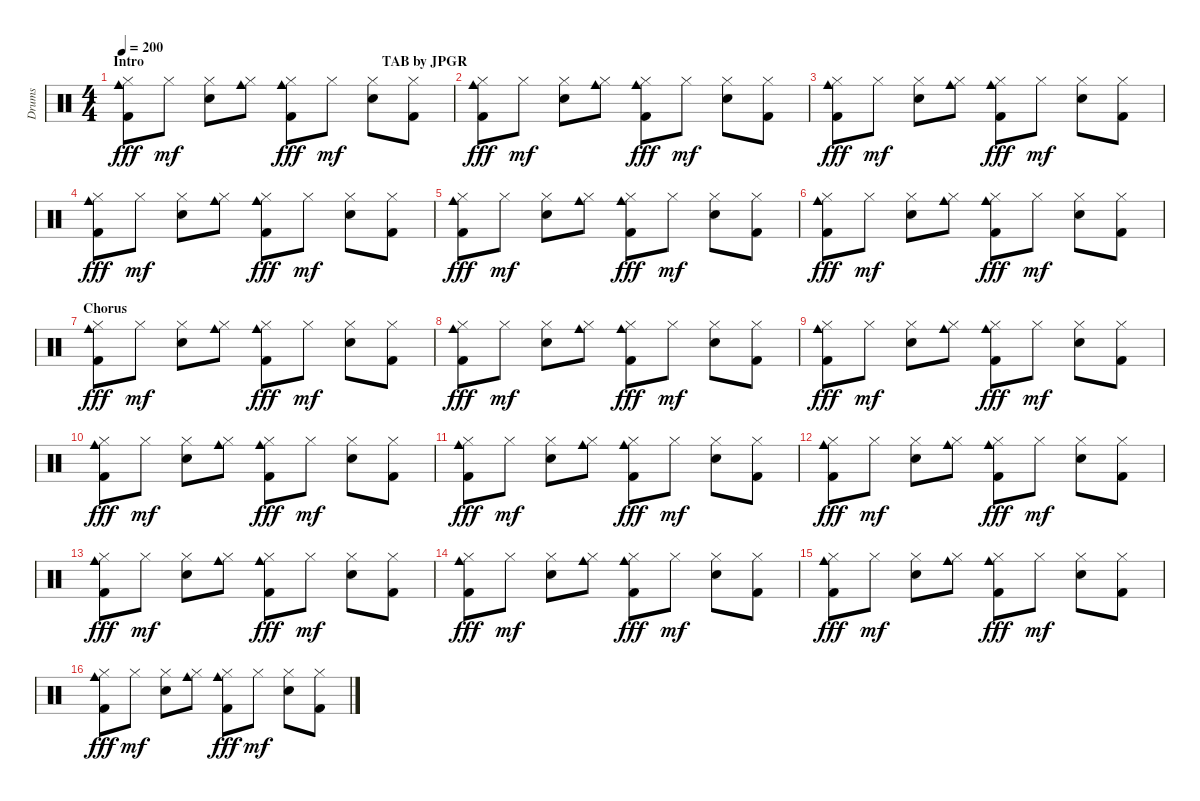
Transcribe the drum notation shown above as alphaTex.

\track ("Drums" "Drums") {instrument percussion}
\staff {score}
\articulation defaults
\ts (4 4)
\section ("" "Intro                                                                    TAB by JPGR")
\tempo 200
\clef neutral
\ks c
("Cowbell medium (hit)" "Hi-Hat (closed)" "Kick (hit) 2").8{dy fff} "Hi-Hat (closed)".8{dy mf} ("Hi-Hat (closed)" "Electric Snare (hit)").8 ("Cowbell medium (hit)" "Hi-Hat (closed)").8 ("Cowbell medium (hit)" "Hi-Hat (closed)" "Kick (hit) 2").8{dy fff} "Hi-Hat (closed)".8{dy mf} ("Hi-Hat (closed)" "Electric Snare (hit)").8 ("Hi-Hat (closed)" "Kick (hit) 2").8 |
("Cowbell medium (hit)" "Hi-Hat (closed)" "Kick (hit) 2").8{dy fff} "Hi-Hat (closed)".8{dy mf} ("Hi-Hat (closed)" "Electric Snare (hit)").8 ("Cowbell medium (hit)" "Hi-Hat (closed)").8 ("Cowbell medium (hit)" "Hi-Hat (closed)" "Kick (hit) 2").8{dy fff} "Hi-Hat (closed)".8{dy mf} ("Hi-Hat (closed)" "Electric Snare (hit)").8 ("Hi-Hat (closed)" "Kick (hit) 2").8 |
("Cowbell medium (hit)" "Hi-Hat (closed)" "Kick (hit) 2").8{dy fff} "Hi-Hat (closed)".8{dy mf} ("Hi-Hat (closed)" "Electric Snare (hit)").8 ("Cowbell medium (hit)" "Hi-Hat (closed)").8 ("Cowbell medium (hit)" "Hi-Hat (closed)" "Kick (hit) 2").8{dy fff} "Hi-Hat (closed)".8{dy mf} ("Hi-Hat (closed)" "Electric Snare (hit)").8 ("Hi-Hat (closed)" "Kick (hit) 2").8 |
("Cowbell medium (hit)" "Hi-Hat (closed)" "Kick (hit) 2").8{dy fff} "Hi-Hat (closed)".8{dy mf} ("Hi-Hat (closed)" "Electric Snare (hit)").8 ("Cowbell medium (hit)" "Hi-Hat (closed)").8 ("Cowbell medium (hit)" "Hi-Hat (closed)" "Kick (hit) 2").8{dy fff} "Hi-Hat (closed)".8{dy mf} ("Hi-Hat (closed)" "Electric Snare (hit)").8 ("Hi-Hat (closed)" "Kick (hit) 2").8 |
("Cowbell medium (hit)" "Hi-Hat (closed)" "Kick (hit) 2").8{dy fff} "Hi-Hat (closed)".8{dy mf} ("Hi-Hat (closed)" "Electric Snare (hit)").8 ("Cowbell medium (hit)" "Hi-Hat (closed)").8 ("Cowbell medium (hit)" "Hi-Hat (closed)" "Kick (hit) 2").8{dy fff} "Hi-Hat (closed)".8{dy mf} ("Hi-Hat (closed)" "Electric Snare (hit)").8 ("Hi-Hat (closed)" "Kick (hit) 2").8 |
("Cowbell medium (hit)" "Hi-Hat (closed)" "Kick (hit) 2").8{dy fff} "Hi-Hat (closed)".8{dy mf} ("Hi-Hat (closed)" "Electric Snare (hit)").8 ("Cowbell medium (hit)" "Hi-Hat (closed)").8 ("Cowbell medium (hit)" "Hi-Hat (closed)" "Kick (hit) 2").8{dy fff} "Hi-Hat (closed)".8{dy mf} ("Hi-Hat (closed)" "Electric Snare (hit)").8 ("Hi-Hat (closed)" "Kick (hit) 2").8 |
\section ("" "Chorus")
("Cowbell medium (hit)" "Hi-Hat (closed)" "Kick (hit) 2").8{dy fff} "Hi-Hat (closed)".8{dy mf} ("Hi-Hat (closed)" "Electric Snare (hit)").8 ("Cowbell medium (hit)" "Hi-Hat (closed)").8 ("Cowbell medium (hit)" "Hi-Hat (closed)" "Kick (hit) 2").8{dy fff} "Hi-Hat (closed)".8{dy mf} ("Hi-Hat (closed)" "Electric Snare (hit)").8 ("Hi-Hat (closed)" "Kick (hit) 2").8 |
("Cowbell medium (hit)" "Hi-Hat (closed)" "Kick (hit) 2").8{dy fff} "Hi-Hat (closed)".8{dy mf} ("Hi-Hat (closed)" "Electric Snare (hit)").8 ("Cowbell medium (hit)" "Hi-Hat (closed)").8 ("Cowbell medium (hit)" "Hi-Hat (closed)" "Kick (hit) 2").8{dy fff} "Hi-Hat (closed)".8{dy mf} ("Hi-Hat (closed)" "Electric Snare (hit)").8 ("Hi-Hat (closed)" "Kick (hit) 2").8 |
("Cowbell medium (hit)" "Hi-Hat (closed)" "Kick (hit) 2").8{dy fff} "Hi-Hat (closed)".8{dy mf} ("Hi-Hat (closed)" "Electric Snare (hit)").8 ("Cowbell medium (hit)" "Hi-Hat (closed)").8 ("Cowbell medium (hit)" "Hi-Hat (closed)" "Kick (hit) 2").8{dy fff} "Hi-Hat (closed)".8{dy mf} ("Hi-Hat (closed)" "Electric Snare (hit)").8 ("Hi-Hat (closed)" "Kick (hit) 2").8 |
("Cowbell medium (hit)" "Hi-Hat (closed)" "Kick (hit) 2").8{dy fff} "Hi-Hat (closed)".8{dy mf} ("Hi-Hat (closed)" "Electric Snare (hit)").8 ("Cowbell medium (hit)" "Hi-Hat (closed)").8 ("Cowbell medium (hit)" "Hi-Hat (closed)" "Kick (hit) 2").8{dy fff} "Hi-Hat (closed)".8{dy mf} ("Hi-Hat (closed)" "Electric Snare (hit)").8 ("Hi-Hat (closed)" "Kick (hit) 2").8 |
("Cowbell medium (hit)" "Hi-Hat (closed)" "Kick (hit) 2").8{dy fff} "Hi-Hat (closed)".8{dy mf} ("Hi-Hat (closed)" "Electric Snare (hit)").8 ("Cowbell medium (hit)" "Hi-Hat (closed)").8 ("Cowbell medium (hit)" "Hi-Hat (closed)" "Kick (hit) 2").8{dy fff} "Hi-Hat (closed)".8{dy mf} ("Hi-Hat (closed)" "Electric Snare (hit)").8 ("Hi-Hat (closed)" "Kick (hit) 2").8 |
("Cowbell medium (hit)" "Hi-Hat (closed)" "Kick (hit) 2").8{dy fff} "Hi-Hat (closed)".8{dy mf} ("Hi-Hat (closed)" "Electric Snare (hit)").8 ("Cowbell medium (hit)" "Hi-Hat (closed)").8 ("Cowbell medium (hit)" "Hi-Hat (closed)" "Kick (hit) 2").8{dy fff} "Hi-Hat (closed)".8{dy mf} ("Hi-Hat (closed)" "Electric Snare (hit)").8 ("Hi-Hat (closed)" "Kick (hit) 2").8 |
("Cowbell medium (hit)" "Hi-Hat (closed)" "Kick (hit) 2").8{dy fff} "Hi-Hat (closed)".8{dy mf} ("Hi-Hat (closed)" "Electric Snare (hit)").8 ("Cowbell medium (hit)" "Hi-Hat (closed)").8 ("Cowbell medium (hit)" "Hi-Hat (closed)" "Kick (hit) 2").8{dy fff} "Hi-Hat (closed)".8{dy mf} ("Hi-Hat (closed)" "Electric Snare (hit)").8 ("Hi-Hat (closed)" "Kick (hit) 2").8 |
("Cowbell medium (hit)" "Hi-Hat (closed)" "Kick (hit) 2").8{dy fff} "Hi-Hat (closed)".8{dy mf} ("Hi-Hat (closed)" "Electric Snare (hit)").8 ("Cowbell medium (hit)" "Hi-Hat (closed)").8 ("Cowbell medium (hit)" "Hi-Hat (closed)" "Kick (hit) 2").8{dy fff} "Hi-Hat (closed)".8{dy mf} ("Hi-Hat (closed)" "Electric Snare (hit)").8 ("Hi-Hat (closed)" "Kick (hit) 2").8 |
("Cowbell medium (hit)" "Hi-Hat (closed)" "Kick (hit) 2").8{dy fff} "Hi-Hat (closed)".8{dy mf} ("Hi-Hat (closed)" "Electric Snare (hit)").8 ("Cowbell medium (hit)" "Hi-Hat (closed)").8 ("Cowbell medium (hit)" "Hi-Hat (closed)" "Kick (hit) 2").8{dy fff} "Hi-Hat (closed)".8{dy mf} ("Hi-Hat (closed)" "Electric Snare (hit)").8 ("Hi-Hat (closed)" "Kick (hit) 2").8 |
("Cowbell medium (hit)" "Hi-Hat (closed)" "Kick (hit) 2").8{dy fff} "Hi-Hat (closed)".8{dy mf} ("Hi-Hat (closed)" "Electric Snare (hit)").8 ("Cowbell medium (hit)" "Hi-Hat (closed)").8 ("Cowbell medium (hit)" "Hi-Hat (closed)" "Kick (hit) 2").8{dy fff} "Hi-Hat (closed)".8{dy mf} ("Hi-Hat (closed)" "Electric Snare (hit)").8 ("Hi-Hat (closed)" "Kick (hit) 2").8
